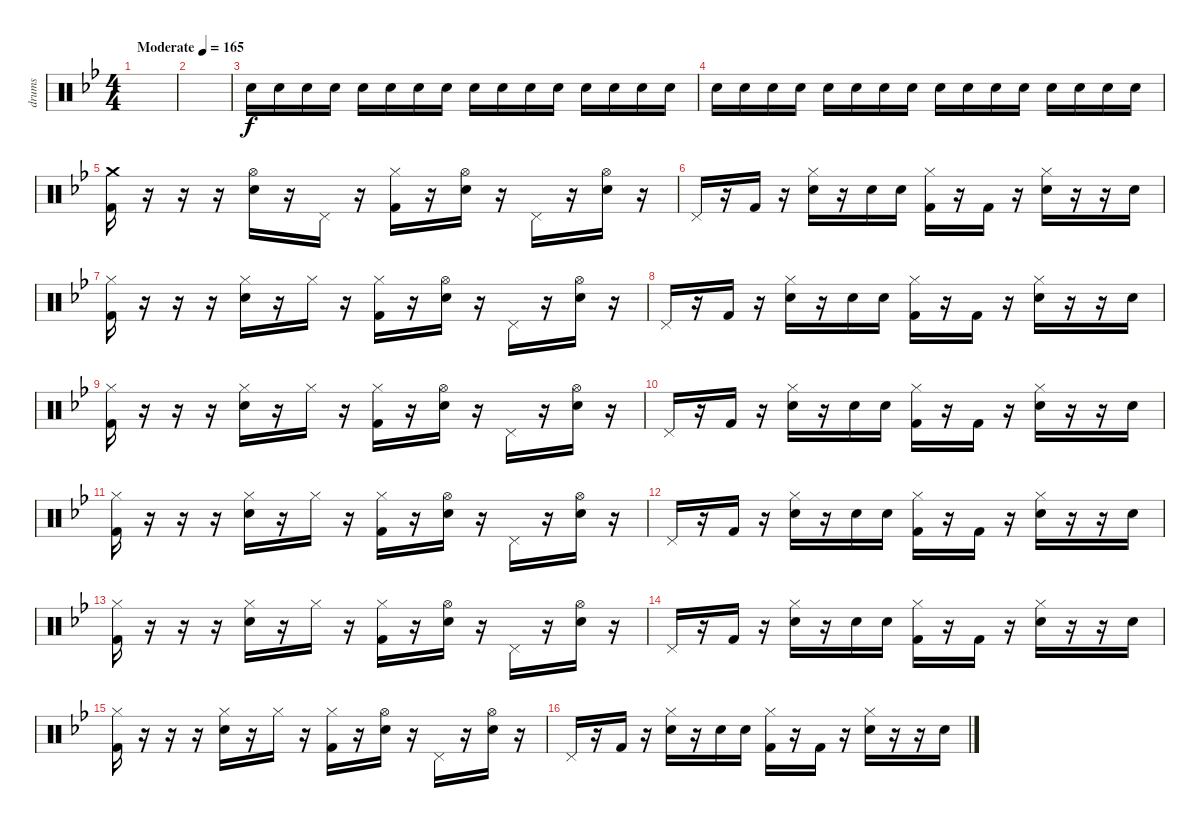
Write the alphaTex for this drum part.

\track ("drums" "drums") {instrument percussion}
\staff {score}
\articulation defaults
\ts (4 4)
\tempo (165 "Moderate")
\clef neutral
\ks bb
|
|
"Snare (hit) 2".16{volume 1} "Snare (hit) 2".16 "Snare (hit) 2".16{volume 2} "Snare (hit) 2".16 "Snare (hit) 2".16{volume 3} "Snare (hit) 2".16 "Snare (hit) 2".16{volume 4} "Snare (hit) 2".16 "Snare (hit) 2".16{volume 5} "Snare (hit) 2".16 "Snare (hit) 2".16 "Snare (hit) 2".16 "Snare (hit) 2".16{volume 6} "Snare (hit) 2".16 "Snare (hit) 2".16 "Snare (hit) 2".16 |
"Snare (hit) 2".16{volume 7} "Snare (hit) 2".16 "Snare (hit) 2".16 "Snare (hit) 2".16 "Snare (hit) 2".16{volume 8} "Snare (hit) 2".16 "Snare (hit) 2".16 "Snare (hit) 2".16 "Snare (hit) 2".16{volume 9} "Snare (hit) 2".16 "Snare (hit) 2".16 "Snare (hit) 2".16 "Snare (hit) 2".16{volume 10} "Snare (hit) 2".16 "Snare (hit) 2".16 "Snare (hit) 2".16 |
("Crash medium (hit)" "Kick (hit) 2").16{volume 6} r.16 r.16 r.16 ("Hi-Hat (open)" "Snare (hit) 2").16 r.16 "Pedal Hi-Hat (hit)".16 r.16 ("Hi-Hat (closed)" "Kick (hit) 2").16 r.16 ("Hi-Hat (open)" "Snare (hit) 2").16 r.16 "Pedal Hi-Hat (hit)".16 r.16 ("Hi-Hat (open)" "Snare (hit) 2").16 r.16 |
"Pedal Hi-Hat (hit)".16 r.16 "Kick (hit) 2".16 r.16 ("Hi-Hat (closed)" "Snare (hit) 2").16 r.16 "Snare (hit) 2".16 "Snare (hit) 2".16 ("Hi-Hat (closed)" "Kick (hit) 2").16 r.16 "Kick (hit) 2".16 r.16 ("Hi-Hat (closed)" "Snare (hit) 2").16 r.16 r.16 "Snare (hit) 2".16 |
("Hi-Hat (closed)" "Kick (hit) 2").16 r.16 r.16 r.16 ("Hi-Hat (closed)" "Snare (hit) 2").16 r.16 "Hi-Hat (closed)".16 r.16 ("Hi-Hat (closed)" "Kick (hit) 2").16 r.16 ("Hi-Hat (open)" "Snare (hit) 2").16 r.16 "Pedal Hi-Hat (hit)".16 r.16 ("Hi-Hat (open)" "Snare (hit) 2").16 r.16 |
"Pedal Hi-Hat (hit)".16 r.16 "Kick (hit) 2".16 r.16 ("Hi-Hat (closed)" "Snare (hit) 2").16 r.16 "Snare (hit) 2".16 "Snare (hit) 2".16 ("Hi-Hat (closed)" "Kick (hit) 2").16 r.16 "Kick (hit) 2".16 r.16 ("Hi-Hat (closed)" "Snare (hit) 2").16 r.16 r.16 "Snare (hit) 2".16 |
("Hi-Hat (closed)" "Kick (hit) 2").16 r.16 r.16 r.16 ("Hi-Hat (closed)" "Snare (hit) 2").16 r.16 "Hi-Hat (closed)".16 r.16 ("Hi-Hat (closed)" "Kick (hit) 2").16 r.16 ("Hi-Hat (open)" "Snare (hit) 2").16 r.16 "Pedal Hi-Hat (hit)".16 r.16 ("Hi-Hat (open)" "Snare (hit) 2").16 r.16 |
"Pedal Hi-Hat (hit)".16 r.16 "Kick (hit) 2".16 r.16 ("Hi-Hat (closed)" "Snare (hit) 2").16 r.16 "Snare (hit) 2".16 "Snare (hit) 2".16 ("Hi-Hat (closed)" "Kick (hit) 2").16 r.16 "Kick (hit) 2".16 r.16 ("Hi-Hat (closed)" "Snare (hit) 2").16 r.16 r.16 "Snare (hit) 2".16 |
("Hi-Hat (closed)" "Kick (hit) 2").16 r.16 r.16 r.16 ("Hi-Hat (closed)" "Snare (hit) 2").16 r.16 "Hi-Hat (closed)".16 r.16 ("Hi-Hat (closed)" "Kick (hit) 2").16 r.16 ("Hi-Hat (open)" "Snare (hit) 2").16 r.16 "Pedal Hi-Hat (hit)".16 r.16 ("Hi-Hat (open)" "Snare (hit) 2").16 r.16 |
"Pedal Hi-Hat (hit)".16 r.16 "Kick (hit) 2".16 r.16 ("Hi-Hat (closed)" "Snare (hit) 2").16 r.16 "Snare (hit) 2".16 "Snare (hit) 2".16 ("Hi-Hat (closed)" "Kick (hit) 2").16 r.16 "Kick (hit) 2".16 r.16 ("Hi-Hat (closed)" "Snare (hit) 2").16 r.16 r.16 "Snare (hit) 2".16 |
("Hi-Hat (closed)" "Kick (hit) 2").16 r.16 r.16 r.16 ("Hi-Hat (closed)" "Snare (hit) 2").16 r.16 "Hi-Hat (closed)".16 r.16 ("Hi-Hat (closed)" "Kick (hit) 2").16 r.16 ("Hi-Hat (open)" "Snare (hit) 2").16 r.16 "Pedal Hi-Hat (hit)".16 r.16 ("Hi-Hat (open)" "Snare (hit) 2").16 r.16 |
"Pedal Hi-Hat (hit)".16 r.16 "Kick (hit) 2".16 r.16 ("Hi-Hat (closed)" "Snare (hit) 2").16 r.16 "Snare (hit) 2".16 "Snare (hit) 2".16 ("Hi-Hat (closed)" "Kick (hit) 2").16 r.16 "Kick (hit) 2".16 r.16 ("Hi-Hat (closed)" "Snare (hit) 2").16 r.16 r.16 "Snare (hit) 2".16 |
("Hi-Hat (closed)" "Kick (hit) 2").16 r.16 r.16 r.16 ("Hi-Hat (closed)" "Snare (hit) 2").16 r.16 "Hi-Hat (closed)".16 r.16 ("Hi-Hat (closed)" "Kick (hit) 2").16 r.16 ("Hi-Hat (open)" "Snare (hit) 2").16 r.16 "Pedal Hi-Hat (hit)".16 r.16 ("Hi-Hat (open)" "Snare (hit) 2").16 r.16 |
"Pedal Hi-Hat (hit)".16 r.16 "Kick (hit) 2".16 r.16 ("Hi-Hat (closed)" "Snare (hit) 2").16 r.16 "Snare (hit) 2".16 "Snare (hit) 2".16 ("Hi-Hat (closed)" "Kick (hit) 2").16 r.16 "Kick (hit) 2".16 r.16 ("Hi-Hat (closed)" "Snare (hit) 2").16 r.16 r.16 "Snare (hit) 2".16
